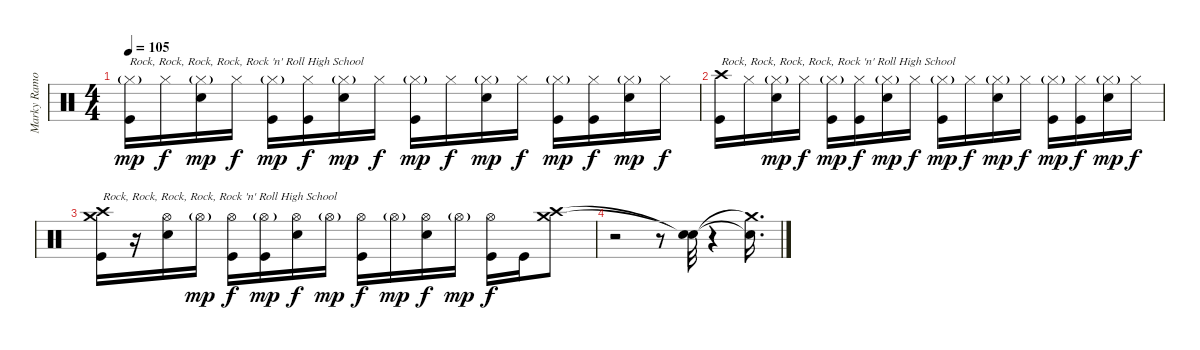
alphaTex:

\track ("Marky Ramone - Drums" "Marky Ramo") {instrument percussion}
\staff {score}
\articulation defaults
\ts (4 4)
\tempo 105
\clef neutral
\ks c
("Hi-Hat (closed)"{g} "Kick (hit)").16{txt "Rock, Rock, Rock, Rock, Rock 'n' Roll High School" dy mp} "Hi-Hat (closed)".16{dy f} ("Hi-Hat (closed)"{g} "Snare (hit) 2").16{dy mp} "Hi-Hat (closed)".16{dy f} ("Hi-Hat (closed)"{g} "Kick (hit)").16{dy mp} ("Hi-Hat (closed)" "Kick (hit)").16{dy f} ("Hi-Hat (closed)"{g} "Snare (hit) 2").16{dy mp} "Hi-Hat (closed)".16{dy f} ("Hi-Hat (closed)"{g} "Kick (hit)").16{dy mp} "Hi-Hat (closed)".16{dy f} ("Hi-Hat (closed)"{g} "Snare (hit) 2").16{dy mp} "Hi-Hat (closed)".16{dy f} ("Hi-Hat (closed)"{g} "Kick (hit)").16{dy mp} ("Hi-Hat (closed)" "Kick (hit)").16{dy f} ("Hi-Hat (closed)"{g} "Snare (hit) 2").16{dy mp} "Hi-Hat (closed)".16{dy f} |
("Crash high (hit)" "Kick (hit)").16{txt "Rock, Rock, Rock, Rock, Rock 'n' Roll High School"} "Hi-Hat (closed)".16 ("Hi-Hat (closed)"{g} "Snare (hit) 2").16{dy mp} "Hi-Hat (closed)".16{dy f} ("Hi-Hat (closed)"{g} "Kick (hit)").16{dy mp} ("Hi-Hat (closed)" "Kick (hit)").16{dy f} ("Hi-Hat (closed)"{g} "Snare (hit) 2").16{dy mp} "Hi-Hat (closed)".16{dy f} ("Hi-Hat (closed)"{g} "Kick (hit)").16{dy mp} "Hi-Hat (closed)".16{dy f} ("Hi-Hat (closed)"{g} "Snare (hit) 2").16{dy mp} "Hi-Hat (closed)".16{dy f} ("Hi-Hat (closed)"{g} "Kick (hit)").16{dy mp} ("Hi-Hat (closed)" "Kick (hit)").16{dy f} ("Hi-Hat (closed)"{g} "Snare (hit) 2").16{dy mp} "Hi-Hat (closed)".16{dy f} |
("Crash medium (hit)" "Crash high (hit)" "Kick (hit)").16{txt "Rock, Rock, Rock, Rock, Rock 'n' Roll High School"} r.16 ("Hi-Hat (open)" "Snare (hit) 2").16 "Hi-Hat (open)"{g}.16{dy mp} ("Hi-Hat (open)" "Kick (hit)").16{dy f} ("Hi-Hat (open)"{g} "Kick (hit)").16{dy mp} ("Hi-Hat (open)" "Snare (hit) 2").16{dy f} "Hi-Hat (open)"{g}.16{dy mp} ("Hi-Hat (open)" "Kick (hit)").16{dy f} "Hi-Hat (open)"{g}.16{dy mp} ("Hi-Hat (open)" "Snare (hit) 2").16{dy f} "Hi-Hat (open)"{g}.16{dy mp} ("Hi-Hat (open)" "Kick (hit)").16{dy f} "Kick (hit)".16 ("Crash medium (hit)" "Crash high (hit)").8 |
r.2 r.8 ("Snare (hit)"{t} "Snare (hit)"{t}).32 r.4 ("Crash medium (hit)"{t} "Snare (hit)"{t}).16{d}
